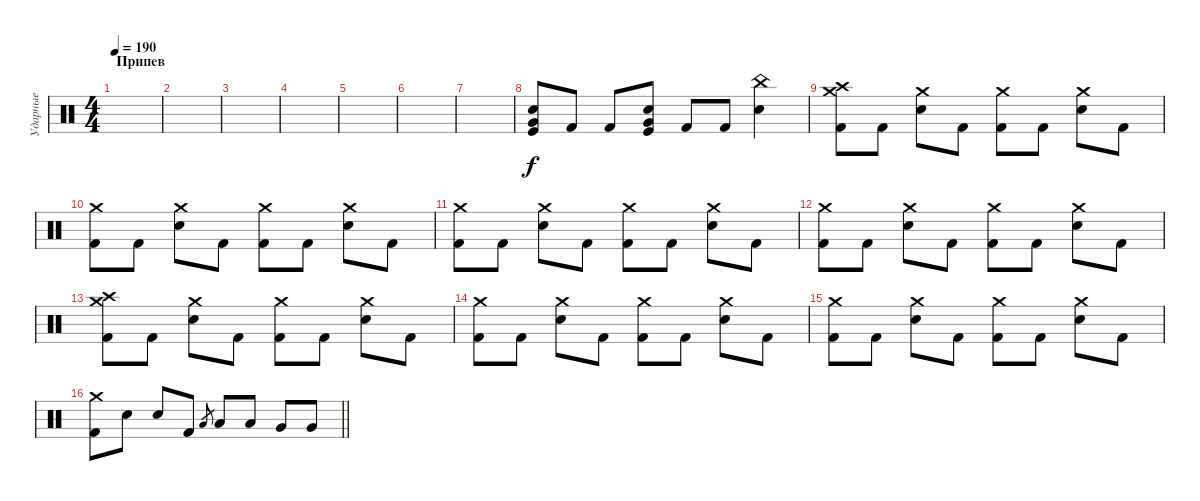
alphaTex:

\track ("Ударные" "Ударные") {instrument percussion}
\staff {score}
\articulation defaults
\ts (4 4)
\section ("" "Припев")
\tempo 190
\clef neutral
\ks c
|
|
|
|
|
|
|
("Kick (hit)" "Snare (hit) 2" "Very Low Tom (hit)").8 "Kick (hit) 2".8 "Kick (hit) 2".8 ("Kick (hit)" "Snare (hit) 2" "Very Low Tom (hit)").8 "Kick (hit) 2".8 "Kick (hit) 2".8 ("China (hit)" "Electric Snare (hit)").4 |
("Crash high (hit)" "Crash medium (hit)" "Kick (hit) 2").8 "Kick (hit) 2".8 ("Crash medium (hit)" "Electric Snare (hit)").8 "Kick (hit) 2".8 ("Crash medium (hit)" "Kick (hit) 2").8 "Kick (hit) 2".8 ("Crash medium (hit)" "Electric Snare (hit)").8 "Kick (hit) 2".8 |
("Crash medium (hit)" "Kick (hit) 2").8 "Kick (hit) 2".8 ("Crash medium (hit)" "Electric Snare (hit)").8 "Kick (hit) 2".8 ("Crash medium (hit)" "Kick (hit) 2").8 "Kick (hit) 2".8 ("Crash medium (hit)" "Electric Snare (hit)").8 "Kick (hit) 2".8 |
("Crash medium (hit)" "Kick (hit) 2").8 "Kick (hit) 2".8 ("Crash medium (hit)" "Electric Snare (hit)").8 "Kick (hit) 2".8 ("Crash medium (hit)" "Kick (hit) 2").8 "Kick (hit) 2".8 ("Crash medium (hit)" "Electric Snare (hit)").8 "Kick (hit) 2".8 |
("Crash medium (hit)" "Kick (hit) 2").8 "Kick (hit) 2".8 ("Crash medium (hit)" "Electric Snare (hit)").8 "Kick (hit) 2".8 ("Crash medium (hit)" "Kick (hit) 2").8 "Kick (hit) 2".8 ("Crash medium (hit)" "Electric Snare (hit)").8 "Kick (hit) 2".8 |
("Crash medium (hit)" "Crash high (hit)" "Kick (hit) 2").8 "Kick (hit) 2".8 ("Crash medium (hit)" "Electric Snare (hit)").8 "Kick (hit) 2".8 ("Crash medium (hit)" "Kick (hit) 2").8 "Kick (hit) 2".8 ("Crash medium (hit)" "Electric Snare (hit)").8 "Kick (hit) 2".8 |
("Crash medium (hit)" "Kick (hit) 2").8 "Kick (hit) 2".8 ("Crash medium (hit)" "Electric Snare (hit)").8 "Kick (hit) 2".8 ("Crash medium (hit)" "Kick (hit) 2").8 "Kick (hit) 2".8 ("Crash medium (hit)" "Electric Snare (hit)").8 "Kick (hit) 2".8 |
("Crash medium (hit)" "Kick (hit) 2").8 "Kick (hit) 2".8 ("Crash medium (hit)" "Electric Snare (hit)").8 "Kick (hit) 2".8 ("Crash medium (hit)" "Kick (hit) 2").8 "Kick (hit) 2".8 ("Crash medium (hit)" "Electric Snare (hit)").8 "Kick (hit) 2".8 |
\barLineRight lightlight
("Crash medium (hit)" "Kick (hit) 2").8 "Snare (hit) 2".8 "Snare (hit) 2".8 "Kick (hit) 2".8 "Low Tom (hit)".8{gr} "Low Tom (hit)".8 "Low Tom (hit)".8 "Very Low Tom (hit)".8 "Very Low Tom (hit)".8
